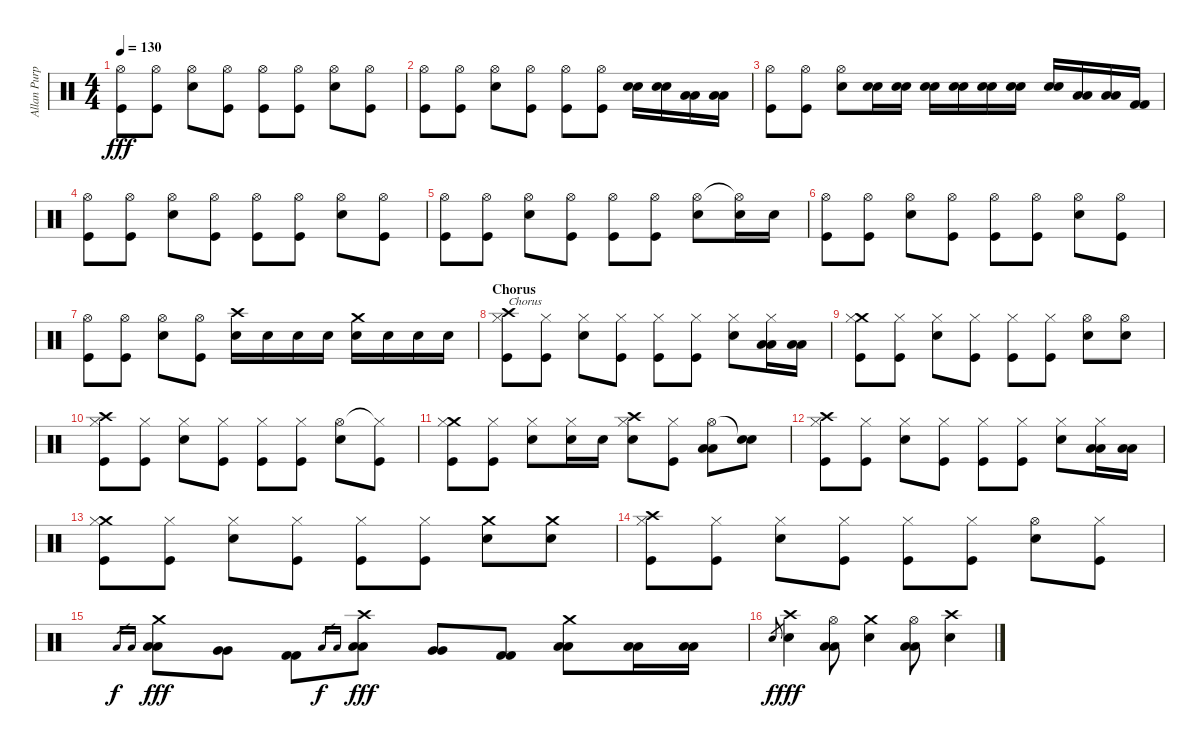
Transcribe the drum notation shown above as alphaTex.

\track ("Allan Purple" "Allan Purp") {instrument percussion}
\staff {score}
\articulation defaults
\ts (4 4)
\tempo 130
\clef neutral
\ks c
("Hi-Hat (open)" "Kick (hit)").8{dy fff} ("Hi-Hat (open)" "Kick (hit)").8 ("Hi-Hat (open)" "Electric Snare (hit)").8 ("Hi-Hat (open)" "Kick (hit)").8 ("Hi-Hat (open)" "Kick (hit)").8 ("Hi-Hat (open)" "Kick (hit)").8 ("Hi-Hat (open)" "Electric Snare (hit)").8 ("Hi-Hat (open)" "Kick (hit)").8 |
("Hi-Hat (open)" "Kick (hit)").8 ("Hi-Hat (open)" "Kick (hit)").8 ("Hi-Hat (open)" "Electric Snare (hit)").8 ("Hi-Hat (open)" "Kick (hit)").8 ("Hi-Hat (open)" "Kick (hit)").8 ("Hi-Hat (open)" "Kick (hit)").8 ("Snare (hit) 2" "Snare (hit) 2").16 ("Snare (hit) 2" "Snare (hit) 2").16 ("Low Tom (hit)" "Low Tom (hit)").16 ("Low Tom (hit)" "Low Tom (hit)").16 |
("Hi-Hat (open)" "Kick (hit)").8 ("Hi-Hat (open)" "Kick (hit)").8 ("Hi-Hat (open)" "Electric Snare (hit)").8 ("Electric Snare (hit)" "Electric Snare (hit)").16 ("Electric Snare (hit)" "Electric Snare (hit)").16 ("Snare (hit) 2" "Snare (hit) 2").16 ("Electric Snare (hit)" "Electric Snare (hit)").16 ("Electric Snare (hit)" "Electric Snare (hit)").16 ("Electric Snare (hit)" "Electric Snare (hit)").16 ("Snare (hit) 2" "Snare (hit) 2").16 ("Low Tom (hit)" "Low Tom (hit)").16 ("Low Tom (hit)" "Low Tom (hit)").16 ("Kick (hit) 2" "Kick (hit) 2").16 |
("Hi-Hat (open)" "Kick (hit)").8 ("Hi-Hat (open)" "Kick (hit)").8 ("Hi-Hat (open)" "Electric Snare (hit)").8 ("Hi-Hat (open)" "Kick (hit)").8 ("Hi-Hat (open)" "Kick (hit)").8 ("Hi-Hat (open)" "Kick (hit)").8 ("Hi-Hat (open)" "Electric Snare (hit)").8 ("Hi-Hat (open)" "Kick (hit)").8 |
("Hi-Hat (open)" "Kick (hit)").8 ("Hi-Hat (open)" "Kick (hit)").8 ("Hi-Hat (open)" "Electric Snare (hit)").8 ("Hi-Hat (open)" "Kick (hit)").8 ("Hi-Hat (open)" "Kick (hit)").8 ("Hi-Hat (open)" "Kick (hit)").8 ("Hi-Hat (open)" "Electric Snare (hit)").8 ("Hi-Hat (open)"{t} "Electric Snare (hit)").16 "Electric Snare (hit)".16 |
("Hi-Hat (open)" "Kick (hit)").8 ("Hi-Hat (open)" "Kick (hit)").8 ("Hi-Hat (open)" "Electric Snare (hit)").8 ("Hi-Hat (open)" "Kick (hit)").8 ("Hi-Hat (open)" "Kick (hit)").8 ("Hi-Hat (open)" "Kick (hit)").8 ("Hi-Hat (open)" "Electric Snare (hit)").8 ("Hi-Hat (open)" "Kick (hit)").8 |
("Hi-Hat (open)" "Kick (hit)").8 ("Hi-Hat (open)" "Kick (hit)").8 ("Hi-Hat (open)" "Electric Snare (hit)").8 ("Hi-Hat (open)" "Kick (hit)").8 ("Crash high (hit)" "Electric Snare (hit)").16 "Electric Snare (hit)".16 "Snare (hit) 2".16 "Snare (hit) 2".16 ("Crash medium (hit)" "Electric Snare (hit)").16 "Electric Snare (hit)".16 "Snare (hit) 2".16 "Snare (hit) 2".16 |
\section ("" "Chorus")
("Crash high (hit)" "Hi-Hat (closed)" "Kick (hit)").8{txt "Chorus"} ("Hi-Hat (closed)" "Kick (hit)").8 ("Hi-Hat (closed)" "Electric Snare (hit)").8 ("Hi-Hat (closed)" "Kick (hit)").8 ("Hi-Hat (closed)" "Kick (hit)").8 ("Hi-Hat (closed)" "Kick (hit)").8 ("Hi-Hat (closed)" "Electric Snare (hit)").8 ("Hi-Hat (closed)" "Low Tom (hit)" "Low Tom (hit)").16 ("Low Tom (hit)" "Low Tom (hit)").16 |
("Crash medium (hit)" "Hi-Hat (closed)" "Kick (hit)").8 ("Hi-Hat (closed)" "Kick (hit)").8 ("Hi-Hat (closed)" "Electric Snare (hit)").8 ("Hi-Hat (closed)" "Kick (hit)").8 ("Hi-Hat (closed)" "Kick (hit)").8 ("Hi-Hat (closed)" "Kick (hit)").8 ("Hi-Hat (open)" "Electric Snare (hit)").8 ("Hi-Hat (open)" "Snare (hit) 2").8 |
("Crash high (hit)" "Hi-Hat (closed)" "Kick (hit)").8 ("Hi-Hat (closed)" "Kick (hit)").8 ("Hi-Hat (closed)" "Electric Snare (hit)").8 ("Hi-Hat (closed)" "Kick (hit)").8 ("Hi-Hat (closed)" "Kick (hit)").8 ("Hi-Hat (closed)" "Kick (hit)").8 ("Hi-Hat (open)" "Electric Snare (hit)").8 ("Hi-Hat (closed)"{t} "Kick (hit)").8 |
("Crash medium (hit)" "Hi-Hat (closed)" "Kick (hit)").8 ("Hi-Hat (closed)" "Kick (hit)").8 ("Hi-Hat (closed)" "Electric Snare (hit)").8 ("Hi-Hat (closed)" "Snare (hit) 2").16 "Snare (hit) 2".16 ("Crash high (hit)" "Hi-Hat (closed)" "Electric Snare (hit)").8 ("Hi-Hat (closed)" "Kick (hit)").8 ("Hi-Hat (open)" "Low Tom (hit)" "Low Tom (hit)").8 ("Snare (hit)"{t} "Electric Snare (hit)").8 |
("Crash high (hit)" "Hi-Hat (closed)" "Kick (hit)").8 ("Hi-Hat (closed)" "Kick (hit)").8 ("Hi-Hat (closed)" "Electric Snare (hit)").8 ("Hi-Hat (closed)" "Kick (hit)").8 ("Hi-Hat (closed)" "Kick (hit)").8 ("Hi-Hat (closed)" "Kick (hit)").8 ("Hi-Hat (closed)" "Electric Snare (hit)").8 ("Hi-Hat (closed)" "Low Tom (hit)" "Low Tom (hit)").16 ("Low Tom (hit)" "Low Tom (hit)").16 |
("Crash medium (hit)" "Hi-Hat (closed)" "Kick (hit)").8 ("Hi-Hat (closed)" "Kick (hit)").8 ("Hi-Hat (closed)" "Electric Snare (hit)").8 ("Hi-Hat (closed)" "Kick (hit)").8 ("Hi-Hat (closed)" "Kick (hit)").8 ("Hi-Hat (closed)" "Kick (hit)").8 ("Crash medium (hit)" "Snare (hit) 2").8 ("Crash medium (hit)" "Snare (hit) 2").8 |
("Crash high (hit)" "Hi-Hat (closed)" "Kick (hit)").8 ("Hi-Hat (closed)" "Kick (hit)").8 ("Hi-Hat (closed)" "Electric Snare (hit)").8 ("Hi-Hat (closed)" "Kick (hit)").8 ("Hi-Hat (closed)" "Kick (hit)").8 ("Hi-Hat (closed)" "Kick (hit)").8 ("Hi-Hat (open)" "Electric Snare (hit)").8 ("Hi-Hat (closed)" "Kick (hit)").8 |
"Low Tom (hit)".16{gr dy f} "Low Tom (hit)".16{gr} ("Crash medium (hit)" "Low Tom (hit)" "Low Tom (hit)").8{dy fff} ("Very Low Tom (hit)" "Very Low Tom (hit)").8 ("Kick (hit) 2" "Kick (hit) 2").8 "Low Tom (hit)".16{gr dy f} "Low Tom (hit)".16{gr} ("Crash high (hit)" "Low Tom (hit)" "Low Tom (hit)").8{dy fff} ("Very Low Tom (hit)" "Very Low Tom (hit)").8 ("Kick (hit) 2" "Kick (hit) 2").8 ("Crash medium (hit)" "Low Floor Tom (hit)" "Low Floor Tom (hit)").8 ("Low Floor Tom (hit)" "Low Floor Tom (hit)").16 ("Low Floor Tom (hit)" "Low Floor Tom (hit)").16 |
"Electric Snare (hit)".8{gr dy f} ("Crash high (hit)" "Electric Snare (hit)").4{dy fff} ("Hi-Hat (open)" "Low Tom (hit)" "Low Tom (hit)").8 ("Crash medium (hit)" "Snare (hit) 2").4 ("Hi-Hat (open)" "Low Tom (hit)" "Low Tom (hit)").8 ("Crash high (hit)" "Electric Snare (hit)").4
